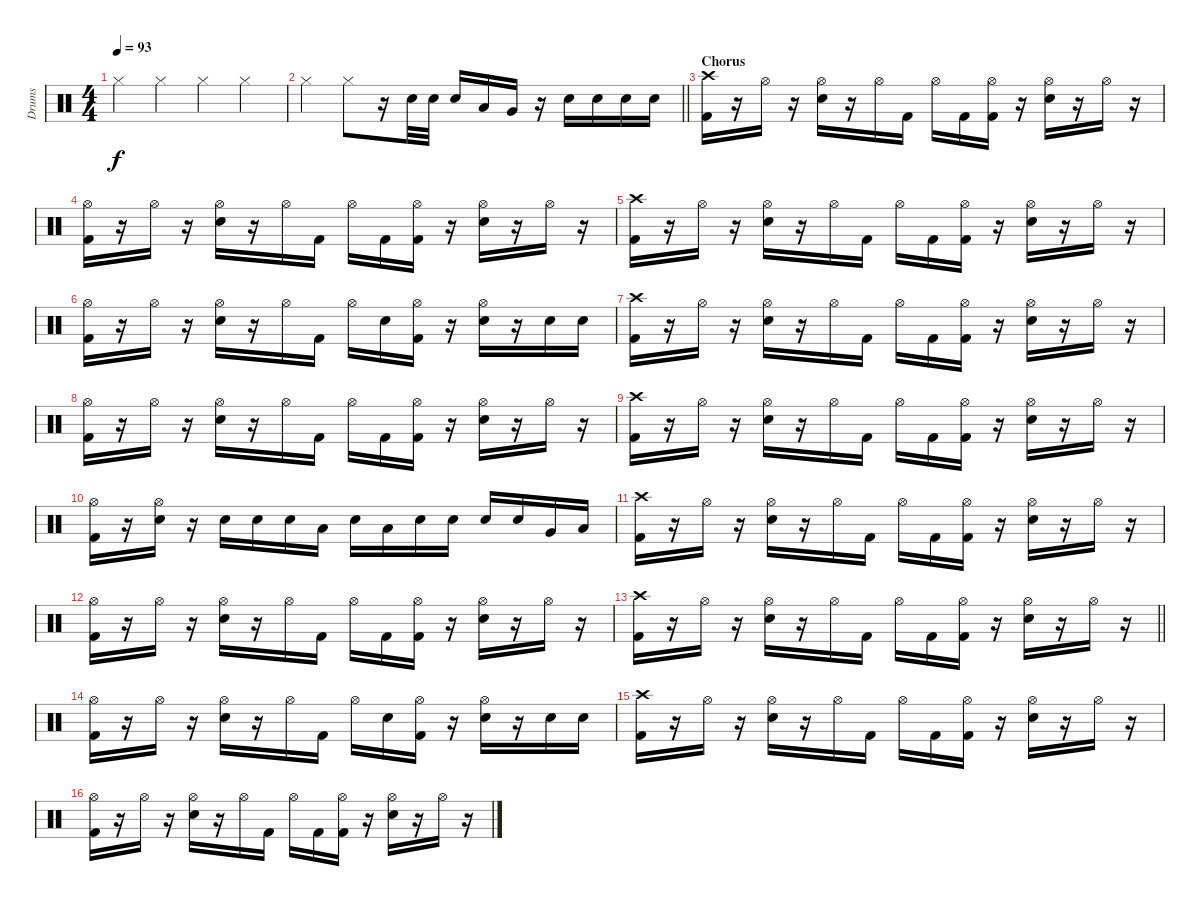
\track ("Drums" "Drums") {instrument percussion}
\staff {score}
\articulation defaults
\ts (4 4)
\tempo 93
\clef neutral
\ks c "Hi-Hat (closed)".4{dy f} "Hi-Hat (closed)".4 "Hi-Hat (closed)".4 "Hi-Hat (closed)".4
|
\barLineRight lightlight "Hi-Hat (closed)".4 "Hi-Hat (closed)".8
r.16 "Electric Snare (hit)".32 "Electric Snare (hit)".32 "Electric Snare (hit)".16 "Low Tom (hit)".16 "Very Low Tom (hit)".16 r.16 "Electric Snare (hit)".16 "Electric Snare (hit)".16 "Electric Snare (hit)".16 "Electric Snare (hit)".16 |
\section ("" "Chorus")
("Crash high (hit)" "Kick (hit) 2").16 r.16 "Hi-Hat (open)".16 r.16 ("Hi-Hat (open)" "Electric Snare (hit)").16 r.16 "Hi-Hat (open)".16 "Kick (hit) 2".16 "Hi-Hat (open)".16 "Kick (hit) 2".16 ("Hi-Hat (open)" "Kick (hit) 2").16 r.16 ("Hi-Hat (open)" "Electric Snare (hit)").16 r.16 "Hi-Hat (open)".16 r.16 |
("Hi-Hat (open)" "Kick (hit) 2").16 r.16 "Hi-Hat (open)".16 r.16 ("Hi-Hat (open)" "Electric Snare (hit)").16 r.16 "Hi-Hat (open)".16 "Kick (hit) 2".16 "Hi-Hat (open)".16 "Kick (hit) 2".16 ("Hi-Hat (open)" "Kick (hit) 2").16 r.16 ("Hi-Hat (open)" "Electric Snare (hit)").16 r.16 "Hi-Hat (open)".16 r.16 |
("Crash high (hit)" "Kick (hit) 2").16 r.16 "Hi-Hat (open)".16 r.16 ("Hi-Hat (open)" "Electric Snare (hit)").16 r.16 "Hi-Hat (open)".16 "Kick (hit) 2".16 "Hi-Hat (open)".16 "Kick (hit) 2".16 ("Hi-Hat (open)" "Kick (hit) 2").16 r.16 ("Hi-Hat (open)" "Electric Snare (hit)").16 r.16 "Hi-Hat (open)".16 r.16 |
("Hi-Hat (open)" "Kick (hit) 2").16 r.16 "Hi-Hat (open)".16 r.16 ("Hi-Hat (open)" "Electric Snare (hit)").16 r.16 "Hi-Hat (open)".16 "Kick (hit) 2".16 "Hi-Hat (open)".16 "Electric Snare (hit)".16 ("Hi-Hat (open)" "Kick (hit) 2").16 r.16 ("Hi-Hat (open)" "Electric Snare (hit)").16 r.16 "Electric Snare (hit)".16 "Electric Snare (hit)".16 |
("Crash high (hit)" "Kick (hit) 2").16 r.16 "Hi-Hat (open)".16 r.16 ("Hi-Hat (open)" "Electric Snare (hit)").16 r.16 "Hi-Hat (open)".16 "Kick (hit) 2".16 "Hi-Hat (open)".16 "Kick (hit) 2".16 ("Hi-Hat (open)" "Kick (hit) 2").16 r.16 ("Hi-Hat (open)" "Electric Snare (hit)").16 r.16 "Hi-Hat (open)".16 r.16 |
("Hi-Hat (open)" "Kick (hit) 2").16 r.16 "Hi-Hat (open)".16 r.16 ("Hi-Hat (open)" "Electric Snare (hit)").16 r.16 "Hi-Hat (open)".16 "Kick (hit) 2".16 "Hi-Hat (open)".16 "Kick (hit) 2".16 ("Hi-Hat (open)" "Kick (hit) 2").16 r.16 ("Hi-Hat (open)" "Electric Snare (hit)").16 r.16 "Hi-Hat (open)".16 r.16 |
("Crash high (hit)" "Kick (hit) 2").16 r.16 "Hi-Hat (open)".16 r.16 ("Hi-Hat (open)" "Electric Snare (hit)").16 r.16 "Hi-Hat (open)".16 "Kick (hit) 2".16 "Hi-Hat (open)".16 "Kick (hit) 2".16 ("Hi-Hat (open)" "Kick (hit) 2").16 r.16 ("Hi-Hat (open)" "Electric Snare (hit)").16 r.16 "Hi-Hat (open)".16 r.16 |
("Hi-Hat (open)" "Kick (hit) 2").16 r.16 ("Hi-Hat (open)" "Electric Snare (hit)").16 r.16 "Electric Snare (hit)".16 "Electric Snare (hit)".16 "Electric Snare (hit)".16 "Low Tom (hit)".16 "Electric Snare (hit)".16 "Low Tom (hit)".16 "Electric Snare (hit)".16 "Electric Snare (hit)".16 "Electric Snare (hit)".16 "Electric Snare (hit)".16 "Very Low Tom (hit)".16 "Low Tom (hit)".16 |
("Crash high (hit)" "Kick (hit) 2").16 r.16 "Hi-Hat (open)".16 r.16 ("Hi-Hat (open)" "Electric Snare (hit)").16 r.16 "Hi-Hat (open)".16 "Kick (hit) 2".16 "Hi-Hat (open)".16 "Kick (hit) 2".16 ("Hi-Hat (open)" "Kick (hit) 2").16 r.16 ("Hi-Hat (open)" "Electric Snare (hit)").16 r.16 "Hi-Hat (open)".16 r.16 |
("Hi-Hat (open)" "Kick (hit) 2").16 r.16 "Hi-Hat (open)".16 r.16 ("Hi-Hat (open)" "Electric Snare (hit)").16 r.16 "Hi-Hat (open)".16 "Kick (hit) 2".16 "Hi-Hat (open)".16 "Kick (hit) 2".16 ("Hi-Hat (open)" "Kick (hit) 2").16 r.16 ("Hi-Hat (open)" "Electric Snare (hit)").16 r.16 "Hi-Hat (open)".16 r.16 |
\barLineRight lightlight
("Crash high (hit)" "Kick (hit) 2").16 r.16 "Hi-Hat (open)".16 r.16 ("Hi-Hat (open)" "Electric Snare (hit)").16 r.16 "Hi-Hat (open)".16 "Kick (hit) 2".16 "Hi-Hat (open)".16 "Kick (hit) 2".16 ("Hi-Hat (open)" "Kick (hit) 2").16 r.16 ("Hi-Hat (open)" "Electric Snare (hit)").16 r.16 "Hi-Hat (open)".16 r.16 |
("Hi-Hat (open)" "Kick (hit) 2").16 r.16 "Hi-Hat (open)".16 r.16 ("Hi-Hat (open)" "Electric Snare (hit)").16 r.16 "Hi-Hat (open)".16 "Kick (hit) 2".16 "Hi-Hat (open)".16 "Electric Snare (hit)".16 ("Hi-Hat (open)" "Kick (hit) 2").16 r.16 ("Hi-Hat (open)" "Electric Snare (hit)").16 r.16 "Electric Snare (hit)".16 "Electric Snare (hit)".16 |
("Crash high (hit)" "Kick (hit) 2").16 r.16 "Hi-Hat (open)".16 r.16 ("Hi-Hat (open)" "Electric Snare (hit)").16 r.16 "Hi-Hat (open)".16 "Kick (hit) 2".16 "Hi-Hat (open)".16 "Kick (hit) 2".16 ("Hi-Hat (open)" "Kick (hit) 2").16 r.16 ("Hi-Hat (open)" "Electric Snare (hit)").16 r.16 "Hi-Hat (open)".16 r.16 |
("Hi-Hat (open)" "Kick (hit) 2").16 r.16 "Hi-Hat (open)".16 r.16 ("Hi-Hat (open)" "Electric Snare (hit)").16 r.16 "Hi-Hat (open)".16 "Kick (hit) 2".16 "Hi-Hat (open)".16 "Kick (hit) 2".16 ("Hi-Hat (open)" "Kick (hit) 2").16 r.16 ("Hi-Hat (open)" "Electric Snare (hit)").16 r.16 "Hi-Hat (open)".16 r.16
